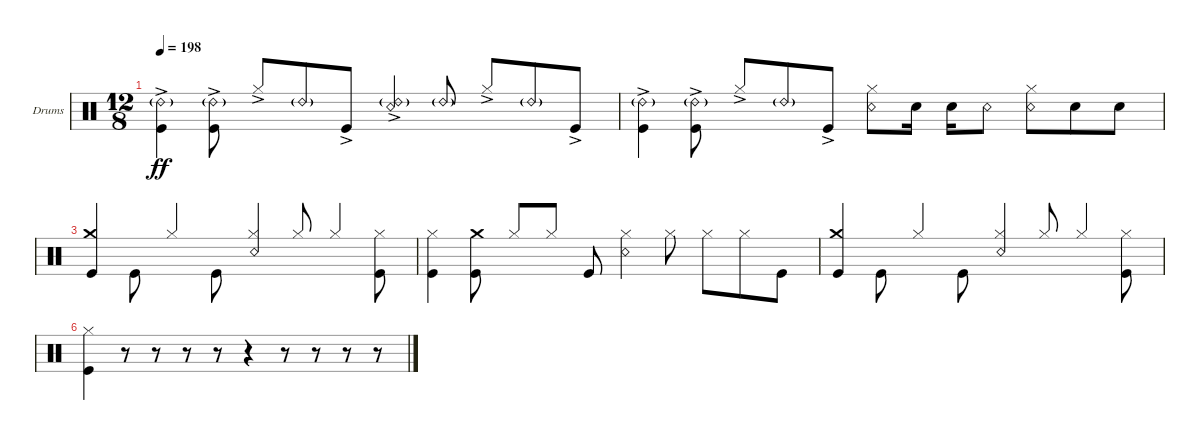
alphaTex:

\bracketExtendMode nobrackets
\firstSystemTrackNameOrientation horizontal
\otherSystemsTrackNameOrientation horizontal
\defaultBarNumberDisplay FirstOfSystem
\track ("Drumkit" "Drums") {instrument percussion}
\staff {score}
\articulation defaults
\ts (12 8)
\tempo 198
\clef neutral
\ks c
("Kick (hit)"{ac} "Ride (bell) 2"{g}).4{dy ff beam invert} ("Kick (hit)"{ac} "Ride (bell) 2"{g}).8{beam invert} "Hi-Hat (closed)"{ac}.8 "Ride (bell) 2"{g}.8 "Kick (hit)"{ac}.8{beam invert} ("Snare (rim shot)"{ac} "Ride (bell) 2"{g}).4 "Ride (bell) 2"{g}.8{beam invert} "Hi-Hat (closed)"{ac}.8{beam invert} "Ride (bell) 2"{g}.8 "Kick (hit)"{ac}.8 |
("Kick (hit)"{ac} "Ride (bell) 2"{g}).4{beam invert} ("Kick (hit)"{ac} "Ride (bell) 2"{g}).8{beam invert} "Hi-Hat (closed)"{ac}.8 "Ride (bell) 2"{g}.8 "Kick (hit)"{ac}.8{beam invert} ("Snare (rim shot)" "Hi-Hat (closed)").8 "Snare (hit) 2".16{beam split} "Snare (hit) 2".16 "Snare (rim shot)".8 ("Snare (rim shot)" "Hi-Hat (closed)").8 "Snare (hit) 2".8 "Snare (hit) 2".8 |
("Kick (hit)" "Crash medium (hit)").4{beam invert} "Kick (hit)".8{beam invert} "Hi-Hat (closed)".4 "Kick (hit)".8{beam invert} ("Snare (rim shot)" "Hi-Hat (closed)").4 "Hi-Hat (closed)".8{beam invert} "Hi-Hat (closed)".4{beam invert} ("Kick (hit)" "Hi-Hat (closed)").8 |
("Kick (hit)" "Hi-Hat (closed)").4 ("Kick (hit)" "Crash medium (hit)").8{beam split} "Hi-Hat (closed)".8 "Hi-Hat (closed)".8{beam invert beam split} "Kick (hit)".8 ("Snare (rim shot)" "Hi-Hat (closed)").4 "Hi-Hat (closed)".8{beam split} "Hi-Hat (closed)".8 "Hi-Hat (closed)".8 "Kick (hit)".8 |
("Kick (hit)" "Crash medium (hit)").4{beam invert} "Kick (hit)".8{beam invert} "Hi-Hat (closed)".4 "Kick (hit)".8{beam invert} ("Snare (rim shot)" "Hi-Hat (closed)").4 "Hi-Hat (closed)".8{beam invert} "Hi-Hat (closed)".4{beam invert} ("Kick (hit)" "Hi-Hat (closed)").8 |
("Kick (hit)" "Hi-Hat (closed)").4 r.8{beam split} r.8 r.8{beam invert beam split} r.8 r.4 r.8{beam split} r.8 r.8 r.8
